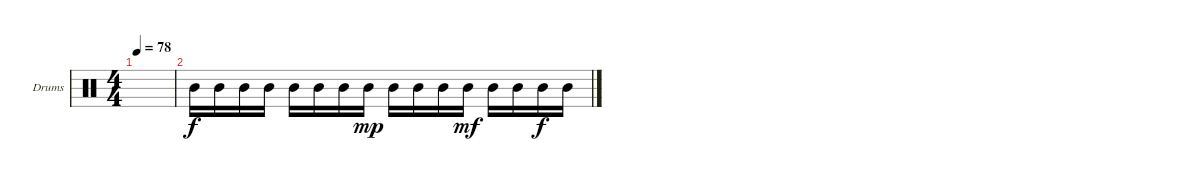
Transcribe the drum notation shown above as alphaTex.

\defaultSystemsLayout 4
\bracketExtendMode groupsimilarinstruments
\firstSystemTrackNameOrientation horizontal
\otherSystemsTrackNameOrientation horizontal
\track ("Drumkit" "Drums") {instrument percussion}
\staff {score}
\articulation defaults
\ts (4 4)
\tempo 78
\clef neutral
\ks c
|
"Mid Tom (hit)".16 "Mid Tom (hit)".16 "Mid Tom (hit)".16 "Mid Tom (hit)".16 "Mid Tom (hit)".16 "Mid Tom (hit)".16 "Mid Tom (hit)".16 "Mid Tom (hit)".16{dy mp} "Mid Tom (hit)".16 "Mid Tom (hit)".16 "Mid Tom (hit)".16 "Mid Tom (hit)".16{dy mf} "Mid Tom (hit)".16 "Mid Tom (hit)".16 "Mid Tom (hit)".16{dy f} "Mid Tom (hit)".16 |
\scale
0.333333 |
\scale
0.333333 |
\scale
0.333333 |
\scale
0.333333 |
\scale
0.333333 |
\scale
0.333333 |
\scale
0.333333 |
\scale
0.333333 |
\scale
0.333333 |
\scale
0.333333 |
\scale
0.333333 |
\scale
0.333333 |
\scale
0.333333 |
\scale
0.333333
